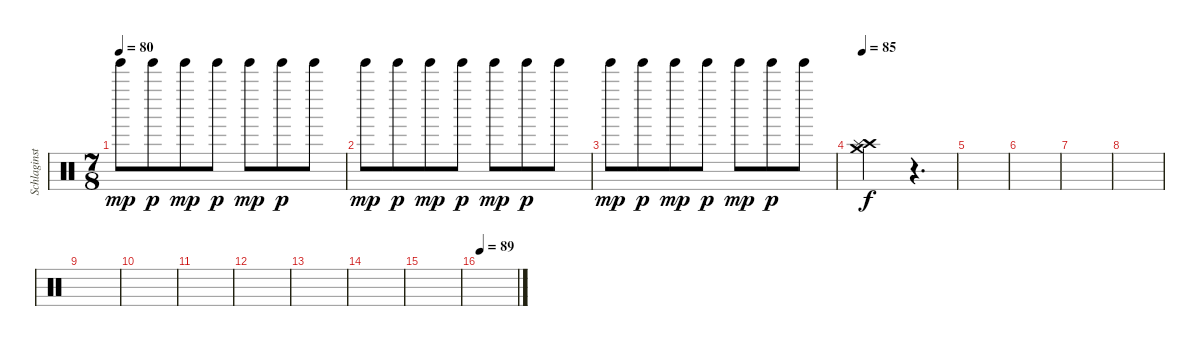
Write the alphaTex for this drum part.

\track ("Schlaginstrumente - Auswahl" "Schlaginst") {instrument percussion}
\staff {score}
\articulation defaults
\ts (7 8)
\tempo 80
\clef neutral
\ks c "Tinkle Bell (hit)".8{dy mp} "Tinkle Bell (hit)".8{dy p} "Tinkle Bell (hit)".8{dy mp} "Tinkle Bell (hit)".8{dy p} "Tinkle Bell (hit)".8{dy mp} "Tinkle Bell (hit)".8{dy p} "Tinkle Bell (hit)".8
|
"Tinkle Bell (hit)".8{dy mp} "Tinkle Bell (hit)".8{dy p} "Tinkle Bell (hit)".8{dy mp} "Tinkle Bell (hit)".8{dy p} "Tinkle Bell (hit)".8{dy mp} "Tinkle Bell (hit)".8{dy p} "Tinkle Bell (hit)".8 |
"Tinkle Bell (hit)".8{dy mp} "Tinkle Bell (hit)".8{dy p} "Tinkle Bell (hit)".8{dy mp} "Tinkle Bell (hit)".8{dy p} "Tinkle Bell (hit)".8{dy mp} "Tinkle Bell (hit)".8{dy p} "Tinkle Bell (hit)".8 |
\tempo 85
("Crash high (hit)" "Splash (hit)" "Crash medium (hit)").2{dy f} r.4{d} |
|
|
|
|
|
|
|
|
|
|
|
\tempo 89
